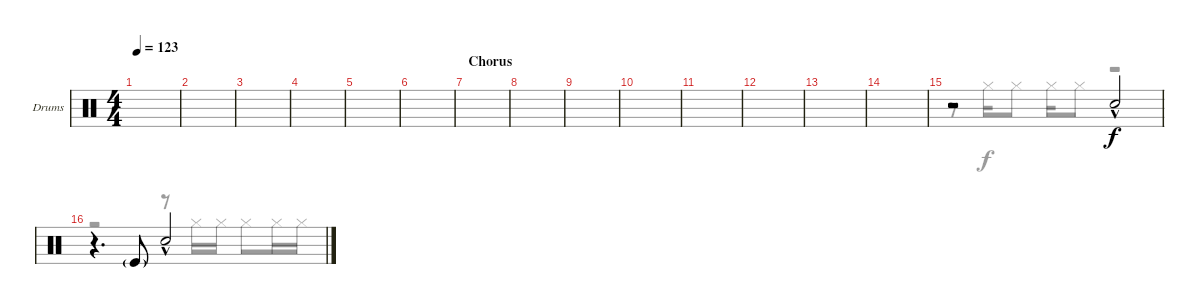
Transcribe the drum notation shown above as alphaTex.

\bracketExtendMode groupsimilarinstruments
\firstSystemTrackNameOrientation horizontal
\otherSystemsTrackNameOrientation horizontal
\track ("Drowned Drumkit" "Drums") {instrument percussion}
\staff {score}
\articulation defaults
\voice
\ts (4 4)
\tempo 123
\clef neutral
\ks aminor
|
|
|
|
|
|
\section ("" "Chorus")
|
|
|
|
|
|
|
|
r.2 "Snare (hit) 2"{hac}.2 |
r.4{d} "Kick (hit)"{g}.8 "Snare (hit) 2"{hac}.2
\voice
\clef neutral
\ottava regular
\simile none
\ks aminor
|
|
|
|
|
|
|
|
|
|
|
|
|
|
r.8 "Hi-Hat (closed)".16 "Hi-Hat (closed)".8 "Hi-Hat (closed)".16 "Hi-Hat (closed)".8 r.2 |
r.2 r.8 "Hi-Hat (closed)".16 "Hi-Hat (closed)".16 "Hi-Hat (closed)".8 "Hi-Hat (closed)".16 "Hi-Hat (closed)".16
